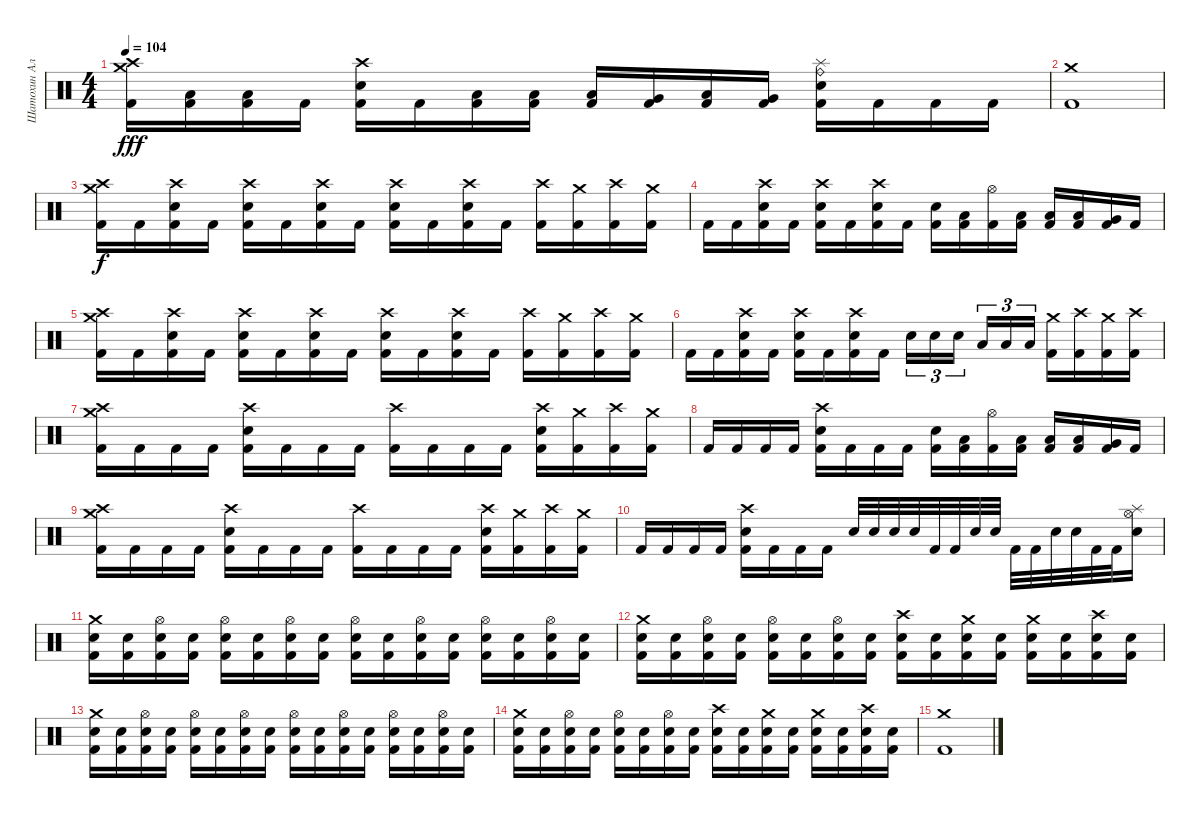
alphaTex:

\track ("Шатохин Алексей" "Шатохин Ал") {instrument percussion}
\staff {score}
\articulation defaults
\ts (4 4)
\tempo 104
\clef neutral
\ks c
("Crash high (hit)" "Crash medium (hit)" "Kick (hit) 2").16{dy fff} ("Low Tom (hit)" "Kick (hit) 2").16 ("Low Floor Tom (hit)" "Kick (hit) 2").16 "Kick (hit) 2".16 ("Crash high (hit)" "Electric Snare (hit)" "Kick (hit) 2").16 "Kick (hit) 2".16 ("Low Floor Tom (hit)" "Kick (hit) 2").16 ("Low Tom (hit)" "Kick (hit) 2").16 ("Low Floor Tom (hit)" "Kick (hit) 2").16 ("Very Low Tom (hit)" "Kick (hit) 2").16 ("Low Floor Tom (hit)" "Kick (hit) 2").16 ("Very Low Tom (hit)" "Kick (hit) 2").16 ("Splash (hit)" "Ride (bell)" "Electric Snare (hit)" "Kick (hit) 2").16 "Kick (hit) 2".16 "Kick (hit) 2".16 "Kick (hit) 2".16 |
("Crash medium (hit)" "Kick (hit) 2").1 |
("Crash high (hit)" "Crash medium (hit)" "Kick (hit) 2").16{dy f} "Kick (hit) 2".16 ("Crash high (hit)" "Electric Snare (hit)" "Kick (hit) 2").16 "Kick (hit) 2".16 ("Crash high (hit)" "Electric Snare (hit)" "Kick (hit) 2").16 "Kick (hit) 2".16 ("Crash high (hit)" "Electric Snare (hit)" "Kick (hit) 2").16 "Kick (hit) 2".16 ("Crash high (hit)" "Electric Snare (hit)" "Kick (hit) 2").16 "Kick (hit) 2".16 ("Crash high (hit)" "Electric Snare (hit)" "Kick (hit) 2").16 "Kick (hit) 2".16 ("Crash high (hit)" "Kick (hit) 2").16 ("Crash medium (hit)" "Kick (hit) 2").16 ("Crash high (hit)" "Kick (hit) 2").16 ("Crash medium (hit)" "Kick (hit) 2").16 |
"Kick (hit) 2".16 "Kick (hit) 2".16 ("Crash high (hit)" "Electric Snare (hit)" "Kick (hit) 2").16 "Kick (hit) 2".16 ("Crash high (hit)" "Electric Snare (hit)" "Kick (hit) 2").16 "Kick (hit) 2".16 ("Crash high (hit)" "Electric Snare (hit)" "Kick (hit) 2").16 "Kick (hit) 2".16 ("Electric Snare (hit)" "Kick (hit) 2").16 ("Low Floor Tom (hit)" "Kick (hit) 2").16 ("Hi-Hat (open)" "Kick (hit) 2").16 ("Low Floor Tom (hit)" "Kick (hit) 2").16 ("Low Tom (hit)" "Kick (hit) 2").16 ("Low Floor Tom (hit)" "Kick (hit) 2").16 ("Very Low Tom (hit)" "Kick (hit) 2").16 "Kick (hit) 2".16 |
("Crash high (hit)" "Crash medium (hit)" "Kick (hit) 2").16 "Kick (hit) 2".16 ("Crash high (hit)" "Electric Snare (hit)" "Kick (hit) 2").16 "Kick (hit) 2".16 ("Crash high (hit)" "Electric Snare (hit)" "Kick (hit) 2").16 "Kick (hit) 2".16 ("Crash high (hit)" "Electric Snare (hit)" "Kick (hit) 2").16 "Kick (hit) 2".16 ("Crash high (hit)" "Electric Snare (hit)" "Kick (hit) 2").16 "Kick (hit) 2".16 ("Crash high (hit)" "Electric Snare (hit)" "Kick (hit) 2").16 "Kick (hit) 2".16 ("Crash high (hit)" "Kick (hit) 2").16 ("Crash medium (hit)" "Kick (hit) 2").16 ("Crash high (hit)" "Kick (hit) 2").16 ("Crash medium (hit)" "Kick (hit) 2").16 |
"Kick (hit) 2".16 "Kick (hit) 2".16 ("Crash high (hit)" "Electric Snare (hit)" "Kick (hit) 2").16 "Kick (hit) 2".16 ("Crash high (hit)" "Electric Snare (hit)" "Kick (hit) 2").16 "Kick (hit) 2".16 ("Crash high (hit)" "Electric Snare (hit)" "Kick (hit) 2").16 "Kick (hit) 2".16 "Electric Snare (hit)".16{tu (3 2)} "Electric Snare (hit)".16{tu (3 2)} "Electric Snare (hit)".16{tu (3 2) beam splitsecondary} "Low Tom (hit)".16{tu (3 2)} "Low Tom (hit)".16{tu (3 2)} "Low Tom (hit)".16{tu (3 2)} ("Crash medium (hit)" "Kick (hit) 2").16 ("Crash high (hit)" "Kick (hit) 2").16 ("Crash medium (hit)" "Kick (hit) 2").16 ("Crash high (hit)" "Kick (hit) 2").16 |
("Crash high (hit)" "Crash medium (hit)" "Kick (hit) 2").16 "Kick (hit) 2".16 "Kick (hit) 2".16 "Kick (hit) 2".16 ("Crash high (hit)" "Electric Snare (hit)" "Kick (hit) 2").16 "Kick (hit) 2".16 "Kick (hit) 2".16 "Kick (hit) 2".16 ("Crash high (hit)" "Kick (hit) 2").16 "Kick (hit) 2".16 "Kick (hit) 2".16 "Kick (hit) 2".16 ("Crash high (hit)" "Electric Snare (hit)" "Kick (hit) 2").16 ("Crash medium (hit)" "Kick (hit) 2").16 ("Crash high (hit)" "Kick (hit) 2").16 ("Crash medium (hit)" "Kick (hit) 2").16 |
"Kick (hit) 2".16 "Kick (hit) 2".16 "Kick (hit) 2".16 "Kick (hit) 2".16 ("Crash high (hit)" "Electric Snare (hit)" "Kick (hit) 2").16 "Kick (hit) 2".16 "Kick (hit) 2".16 "Kick (hit) 2".16 ("Electric Snare (hit)" "Kick (hit) 2").16 ("Low Floor Tom (hit)" "Kick (hit) 2").16 ("Hi-Hat (open)" "Kick (hit) 2").16 ("Low Floor Tom (hit)" "Kick (hit) 2").16 ("Low Tom (hit)" "Kick (hit) 2").16 ("Low Floor Tom (hit)" "Kick (hit) 2").16 ("Very Low Tom (hit)" "Kick (hit) 2").16 "Kick (hit) 2".16 |
("Crash high (hit)" "Crash medium (hit)" "Kick (hit) 2").16 "Kick (hit) 2".16 "Kick (hit) 2".16 "Kick (hit) 2".16 ("Crash high (hit)" "Electric Snare (hit)" "Kick (hit) 2").16 "Kick (hit) 2".16 "Kick (hit) 2".16 "Kick (hit) 2".16 ("Crash high (hit)" "Kick (hit) 2").16 "Kick (hit) 2".16 "Kick (hit) 2".16 "Kick (hit) 2".16 ("Crash high (hit)" "Electric Snare (hit)" "Kick (hit) 2").16 ("Crash medium (hit)" "Kick (hit) 2").16 ("Crash high (hit)" "Kick (hit) 2").16 ("Crash medium (hit)" "Kick (hit) 2").16 |
"Kick (hit) 2".16 "Kick (hit) 2".16 "Kick (hit) 2".16 "Kick (hit) 2".16 ("Crash high (hit)" "Electric Snare (hit)" "Kick (hit) 2").16 "Kick (hit) 2".16 "Kick (hit) 2".16 "Kick (hit) 2".16 "Electric Snare (hit)".32 "Electric Snare (hit)".32 "Electric Snare (hit)".32 "Electric Snare (hit)".32 "Kick (hit) 2".32 "Kick (hit) 2".32 "Electric Snare (hit)".32 "Electric Snare (hit)".32 "Kick (hit) 2".32 "Kick (hit) 2".32 "Electric Snare (hit)".32 "Electric Snare (hit)".32 "Kick (hit) 2".32 "Kick (hit) 2".32 ("Splash (hit)" "Hi-Hat (open)" "Electric Snare (hit)").16 |
("Crash medium (hit)" "Electric Snare (hit)" "Kick (hit) 2").16 ("Electric Snare (hit)" "Kick (hit) 2").16 ("Hi-Hat (open)" "Electric Snare (hit)" "Kick (hit) 2").16 ("Electric Snare (hit)" "Kick (hit) 2").16 ("Hi-Hat (open)" "Electric Snare (hit)" "Kick (hit) 2").16 ("Electric Snare (hit)" "Kick (hit) 2").16 ("Hi-Hat (open)" "Electric Snare (hit)" "Kick (hit) 2").16 ("Electric Snare (hit)" "Kick (hit) 2").16 ("Hi-Hat (open)" "Electric Snare (hit)" "Kick (hit) 2").16 ("Electric Snare (hit)" "Kick (hit) 2").16 ("Hi-Hat (open)" "Electric Snare (hit)" "Kick (hit) 2").16 ("Electric Snare (hit)" "Kick (hit) 2").16 ("Hi-Hat (open)" "Electric Snare (hit)" "Kick (hit) 2").16 ("Electric Snare (hit)" "Kick (hit) 2").16 ("Hi-Hat (open)" "Electric Snare (hit)" "Kick (hit) 2").16 ("Electric Snare (hit)" "Kick (hit) 2").16 |
("Crash medium (hit)" "Electric Snare (hit)" "Kick (hit) 2").16 ("Electric Snare (hit)" "Kick (hit) 2").16 ("Hi-Hat (open)" "Electric Snare (hit)" "Kick (hit) 2").16 ("Electric Snare (hit)" "Kick (hit) 2").16 ("Hi-Hat (open)" "Electric Snare (hit)" "Kick (hit) 2").16 ("Electric Snare (hit)" "Kick (hit) 2").16 ("Hi-Hat (open)" "Electric Snare (hit)" "Kick (hit) 2").16 ("Electric Snare (hit)" "Kick (hit) 2").16 ("Crash high (hit)" "Electric Snare (hit)" "Kick (hit) 2").16 ("Electric Snare (hit)" "Kick (hit) 2").16 ("Crash medium (hit)" "Electric Snare (hit)" "Kick (hit) 2").16 ("Electric Snare (hit)" "Kick (hit) 2").16 ("Crash medium (hit)" "Electric Snare (hit)" "Kick (hit) 2").16 ("Electric Snare (hit)" "Kick (hit) 2").16 ("Crash high (hit)" "Electric Snare (hit)" "Kick (hit) 2").16 ("Electric Snare (hit)" "Kick (hit) 2").16 |
("Crash medium (hit)" "Electric Snare (hit)" "Kick (hit) 2").16 ("Electric Snare (hit)" "Kick (hit) 2").16 ("Hi-Hat (open)" "Electric Snare (hit)" "Kick (hit) 2").16 ("Electric Snare (hit)" "Kick (hit) 2").16 ("Hi-Hat (open)" "Electric Snare (hit)" "Kick (hit) 2").16 ("Electric Snare (hit)" "Kick (hit) 2").16 ("Hi-Hat (open)" "Electric Snare (hit)" "Kick (hit) 2").16 ("Electric Snare (hit)" "Kick (hit) 2").16 ("Hi-Hat (open)" "Electric Snare (hit)" "Kick (hit) 2").16 ("Electric Snare (hit)" "Kick (hit) 2").16 ("Hi-Hat (open)" "Electric Snare (hit)" "Kick (hit) 2").16 ("Electric Snare (hit)" "Kick (hit) 2").16 ("Hi-Hat (open)" "Electric Snare (hit)" "Kick (hit) 2").16 ("Electric Snare (hit)" "Kick (hit) 2").16 ("Hi-Hat (open)" "Electric Snare (hit)" "Kick (hit) 2").16 ("Electric Snare (hit)" "Kick (hit) 2").16 |
("Crash medium (hit)" "Electric Snare (hit)" "Kick (hit) 2").16 ("Electric Snare (hit)" "Kick (hit) 2").16 ("Hi-Hat (open)" "Electric Snare (hit)" "Kick (hit) 2").16 ("Electric Snare (hit)" "Kick (hit) 2").16 ("Hi-Hat (open)" "Electric Snare (hit)" "Kick (hit) 2").16 ("Electric Snare (hit)" "Kick (hit) 2").16 ("Hi-Hat (open)" "Electric Snare (hit)" "Kick (hit) 2").16 ("Electric Snare (hit)" "Kick (hit) 2").16 ("Crash high (hit)" "Electric Snare (hit)" "Kick (hit) 2").16 ("Electric Snare (hit)" "Kick (hit) 2").16 ("Crash medium (hit)" "Electric Snare (hit)" "Kick (hit) 2").16 ("Electric Snare (hit)" "Kick (hit) 2").16 ("Crash medium (hit)" "Electric Snare (hit)" "Kick (hit) 2").16 ("Electric Snare (hit)" "Kick (hit) 2").16 ("Crash high (hit)" "Electric Snare (hit)" "Kick (hit) 2").16 ("Electric Snare (hit)" "Kick (hit) 2").16 |
("Crash medium (hit)" "Kick (hit) 2").1
